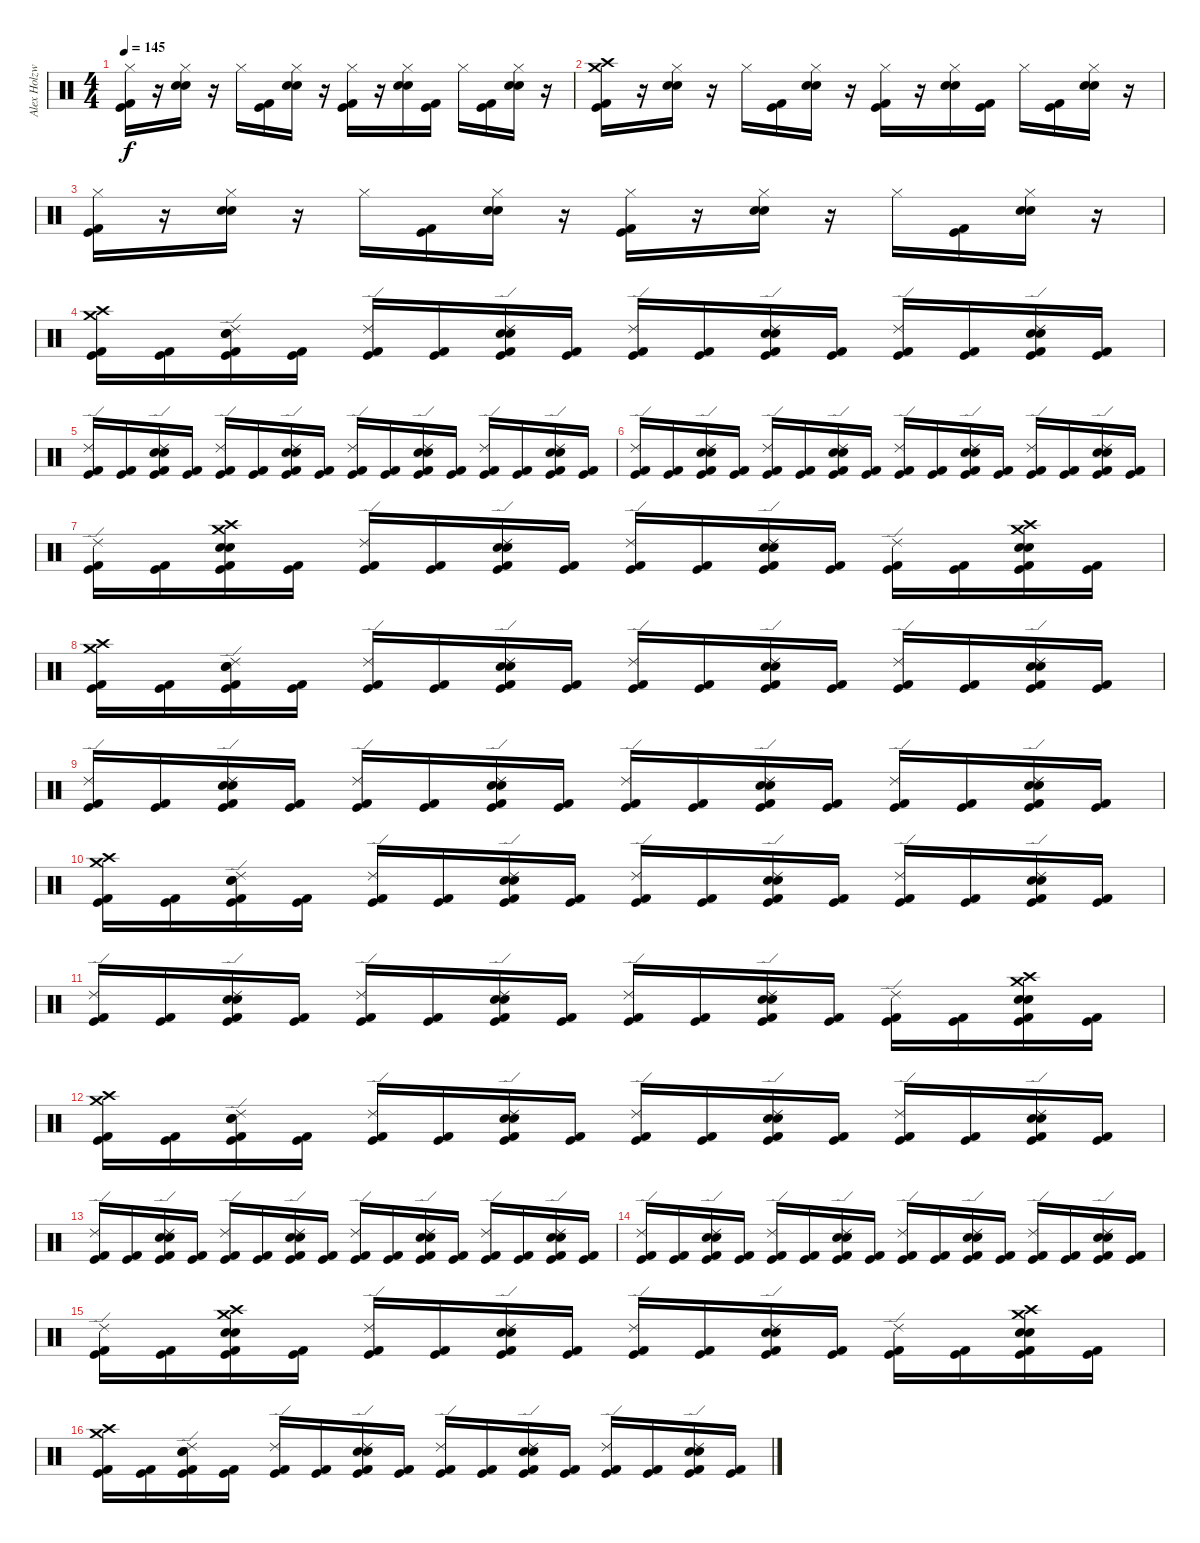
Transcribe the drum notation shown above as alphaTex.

\track ("Alex Holzwarth" "Alex Holzw") {instrument percussion}
\staff {score}
\articulation defaults
\ts (4 4)
\tempo 145
\clef neutral
\ks c
("Hi-Hat (closed)" "Kick (hit) 2" "Kick (hit)").16{dy f} r.16 ("Hi-Hat (closed)" "Electric Snare (hit)" "Snare (hit) 2").16 r.16 "Hi-Hat (closed)".16 ("Kick (hit) 2" "Kick (hit)").16 ("Electric Snare (hit)" "Snare (hit) 2" "Hi-Hat (closed)").16 r.16 ("Hi-Hat (closed)" "Kick (hit) 2" "Kick (hit)").16 r.16 ("Hi-Hat (closed)" "Electric Snare (hit)" "Snare (hit) 2").16 ("Kick (hit) 2" "Kick (hit)").16 "Hi-Hat (closed)".16 ("Kick (hit) 2" "Kick (hit)").16 ("Electric Snare (hit)" "Snare (hit) 2" "Hi-Hat (closed)").16 r.16 |
("Crash high (hit)" "Crash medium (hit)" "Kick (hit) 2" "Kick (hit)").16 r.16 ("Hi-Hat (closed)" "Electric Snare (hit)" "Snare (hit) 2").16 r.16 "Hi-Hat (closed)".16 ("Kick (hit) 2" "Kick (hit)").16 ("Electric Snare (hit)" "Snare (hit) 2" "Hi-Hat (closed)").16 r.16 ("Hi-Hat (closed)" "Kick (hit) 2" "Kick (hit)").16 r.16 ("Hi-Hat (closed)" "Electric Snare (hit)" "Snare (hit) 2").16 ("Kick (hit) 2" "Kick (hit)").16 "Hi-Hat (closed)".16 ("Kick (hit) 2" "Kick (hit)").16 ("Electric Snare (hit)" "Snare (hit) 2" "Hi-Hat (closed)").16 r.16 |
("Hi-Hat (closed)" "Kick (hit) 2" "Kick (hit)").16 r.16 ("Hi-Hat (closed)" "Electric Snare (hit)" "Snare (hit) 2").16 r.16 "Hi-Hat (closed)".16 ("Kick (hit) 2" "Kick (hit)").16 ("Electric Snare (hit)" "Snare (hit) 2" "Hi-Hat (closed)").16 r.16 ("Hi-Hat (closed)" "Kick (hit) 2" "Kick (hit)").16 r.16 ("Hi-Hat (closed)" "Electric Snare (hit)" "Snare (hit) 2").16 r.16 "Hi-Hat (closed)".16 ("Kick (hit) 2" "Kick (hit)").16 ("Electric Snare (hit)" "Snare (hit) 2" "Hi-Hat (closed)").16 r.16 |
("Crash high (hit)" "Crash medium (hit)" "Kick (hit) 2" "Kick (hit)").16 ("Kick (hit) 2" "Kick (hit)").16 ("Ride (edge) 2" "Electric Snare (hit)" "Snare (hit) 2" "Kick (hit) 2" "Kick (hit)").16 ("Kick (hit) 2" "Kick (hit)").16 ("Ride (edge) 2" "Kick (hit) 2" "Kick (hit)").16 ("Kick (hit) 2" "Kick (hit)").16 ("Ride (edge) 2" "Electric Snare (hit)" "Snare (hit) 2" "Kick (hit) 2" "Kick (hit)").16 ("Kick (hit) 2" "Kick (hit)").16 ("Ride (edge) 2" "Kick (hit) 2" "Kick (hit)").16 ("Kick (hit) 2" "Kick (hit)").16 ("Ride (edge) 2" "Snare (hit) 2" "Electric Snare (hit)" "Kick (hit) 2" "Kick (hit)").16 ("Kick (hit) 2" "Kick (hit)").16 ("Ride (edge) 2" "Kick (hit) 2" "Kick (hit)").16 ("Kick (hit) 2" "Kick (hit)").16 ("Ride (edge) 2" "Electric Snare (hit)" "Snare (hit) 2" "Kick (hit) 2" "Kick (hit)").16 ("Kick (hit) 2" "Kick (hit)").16 |
("Ride (edge) 2" "Kick (hit) 2" "Kick (hit)").16 ("Kick (hit) 2" "Kick (hit)").16 ("Ride (edge) 2" "Snare (hit) 2" "Electric Snare (hit)" "Kick (hit) 2" "Kick (hit)").16 ("Kick (hit) 2" "Kick (hit)").16 ("Ride (edge) 2" "Kick (hit) 2" "Kick (hit)").16 ("Kick (hit) 2" "Kick (hit)").16 ("Ride (edge) 2" "Electric Snare (hit)" "Snare (hit) 2" "Kick (hit) 2" "Kick (hit)").16 ("Kick (hit) 2" "Kick (hit)").16 ("Ride (edge) 2" "Kick (hit) 2" "Kick (hit)").16 ("Kick (hit) 2" "Kick (hit)").16 ("Ride (edge) 2" "Snare (hit) 2" "Electric Snare (hit)" "Kick (hit) 2" "Kick (hit)").16 ("Kick (hit) 2" "Kick (hit)").16 ("Ride (edge) 2" "Kick (hit) 2" "Kick (hit)").16 ("Kick (hit) 2" "Kick (hit)").16 ("Ride (edge) 2" "Electric Snare (hit)" "Snare (hit) 2" "Kick (hit) 2" "Kick (hit)").16 ("Kick (hit) 2" "Kick (hit)").16 |
("Ride (edge) 2" "Kick (hit) 2" "Kick (hit)").16 ("Kick (hit) 2" "Kick (hit)").16 ("Ride (edge) 2" "Snare (hit) 2" "Electric Snare (hit)" "Kick (hit) 2" "Kick (hit)").16 ("Kick (hit) 2" "Kick (hit)").16 ("Ride (edge) 2" "Kick (hit) 2" "Kick (hit)").16 ("Kick (hit) 2" "Kick (hit)").16 ("Ride (edge) 2" "Electric Snare (hit)" "Snare (hit) 2" "Kick (hit) 2" "Kick (hit)").16 ("Kick (hit) 2" "Kick (hit)").16 ("Ride (edge) 2" "Kick (hit) 2" "Kick (hit)").16 ("Kick (hit) 2" "Kick (hit)").16 ("Ride (edge) 2" "Snare (hit) 2" "Electric Snare (hit)" "Kick (hit) 2" "Kick (hit)").16 ("Kick (hit) 2" "Kick (hit)").16 ("Ride (edge) 2" "Kick (hit) 2" "Kick (hit)").16 ("Kick (hit) 2" "Kick (hit)").16 ("Ride (edge) 2" "Electric Snare (hit)" "Snare (hit) 2" "Kick (hit) 2" "Kick (hit)").16 ("Kick (hit) 2" "Kick (hit)").16 |
("Ride (edge) 2" "Kick (hit) 2" "Kick (hit)").16 ("Kick (hit) 2" "Kick (hit)").16 ("Crash high (hit)" "Crash medium (hit)" "Snare (hit) 2" "Electric Snare (hit)" "Kick (hit) 2" "Kick (hit)").16 ("Kick (hit) 2" "Kick (hit)").16 ("Ride (edge) 2" "Kick (hit) 2" "Kick (hit)").16 ("Kick (hit) 2" "Kick (hit)").16 ("Ride (edge) 2" "Electric Snare (hit)" "Snare (hit) 2" "Kick (hit) 2" "Kick (hit)").16 ("Kick (hit) 2" "Kick (hit)").16 ("Ride (edge) 2" "Kick (hit) 2" "Kick (hit)").16 ("Kick (hit) 2" "Kick (hit)").16 ("Ride (edge) 2" "Snare (hit) 2" "Electric Snare (hit)" "Kick (hit) 2" "Kick (hit)").16 ("Kick (hit) 2" "Kick (hit)").16 ("Ride (edge) 2" "Kick (hit) 2" "Kick (hit)").16 ("Kick (hit) 2" "Kick (hit)").16 ("Crash high (hit)" "Crash medium (hit)" "Electric Snare (hit)" "Snare (hit) 2" "Kick (hit) 2" "Kick (hit)").16 ("Kick (hit) 2" "Kick (hit)").16 |
("Crash high (hit)" "Crash medium (hit)" "Kick (hit) 2" "Kick (hit)").16 ("Kick (hit) 2" "Kick (hit)").16 ("Ride (edge) 2" "Snare (hit) 2" "Electric Snare (hit)" "Kick (hit) 2" "Kick (hit)").16 ("Kick (hit) 2" "Kick (hit)").16 ("Ride (edge) 2" "Kick (hit) 2" "Kick (hit)").16 ("Kick (hit) 2" "Kick (hit)").16 ("Ride (edge) 2" "Electric Snare (hit)" "Snare (hit) 2" "Kick (hit) 2" "Kick (hit)").16 ("Kick (hit) 2" "Kick (hit)").16 ("Ride (edge) 2" "Kick (hit) 2" "Kick (hit)").16 ("Kick (hit) 2" "Kick (hit)").16 ("Ride (edge) 2" "Snare (hit) 2" "Electric Snare (hit)" "Kick (hit) 2" "Kick (hit)").16 ("Kick (hit) 2" "Kick (hit)").16 ("Ride (edge) 2" "Kick (hit) 2" "Kick (hit)").16 ("Kick (hit) 2" "Kick (hit)").16 ("Ride (edge) 2" "Electric Snare (hit)" "Snare (hit) 2" "Kick (hit) 2" "Kick (hit)").16 ("Kick (hit) 2" "Kick (hit)").16 |
("Ride (edge) 2" "Kick (hit) 2" "Kick (hit)").16 ("Kick (hit) 2" "Kick (hit)").16 ("Ride (edge) 2" "Snare (hit) 2" "Electric Snare (hit)" "Kick (hit) 2" "Kick (hit)").16 ("Kick (hit) 2" "Kick (hit)").16 ("Ride (edge) 2" "Kick (hit) 2" "Kick (hit)").16 ("Kick (hit) 2" "Kick (hit)").16 ("Ride (edge) 2" "Electric Snare (hit)" "Snare (hit) 2" "Kick (hit) 2" "Kick (hit)").16 ("Kick (hit) 2" "Kick (hit)").16 ("Ride (edge) 2" "Kick (hit) 2" "Kick (hit)").16 ("Kick (hit) 2" "Kick (hit)").16 ("Ride (edge) 2" "Snare (hit) 2" "Electric Snare (hit)" "Kick (hit) 2" "Kick (hit)").16 ("Kick (hit) 2" "Kick (hit)").16 ("Ride (edge) 2" "Kick (hit) 2" "Kick (hit)").16 ("Kick (hit) 2" "Kick (hit)").16 ("Ride (edge) 2" "Electric Snare (hit)" "Snare (hit) 2" "Kick (hit) 2" "Kick (hit)").16 ("Kick (hit) 2" "Kick (hit)").16 |
("Crash high (hit)" "Crash medium (hit)" "Kick (hit) 2" "Kick (hit)").16 ("Kick (hit) 2" "Kick (hit)").16 ("Ride (edge) 2" "Snare (hit) 2" "Electric Snare (hit)" "Kick (hit) 2" "Kick (hit)").16 ("Kick (hit) 2" "Kick (hit)").16 ("Ride (edge) 2" "Kick (hit) 2" "Kick (hit)").16 ("Kick (hit) 2" "Kick (hit)").16 ("Ride (edge) 2" "Electric Snare (hit)" "Snare (hit) 2" "Kick (hit) 2" "Kick (hit)").16 ("Kick (hit) 2" "Kick (hit)").16 ("Ride (edge) 2" "Kick (hit) 2" "Kick (hit)").16 ("Kick (hit) 2" "Kick (hit)").16 ("Ride (edge) 2" "Snare (hit) 2" "Electric Snare (hit)" "Kick (hit) 2" "Kick (hit)").16 ("Kick (hit) 2" "Kick (hit)").16 ("Ride (edge) 2" "Kick (hit) 2" "Kick (hit)").16 ("Kick (hit) 2" "Kick (hit)").16 ("Ride (edge) 2" "Electric Snare (hit)" "Snare (hit) 2" "Kick (hit) 2" "Kick (hit)").16 ("Kick (hit) 2" "Kick (hit)").16 |
("Ride (edge) 2" "Kick (hit) 2" "Kick (hit)").16 ("Kick (hit) 2" "Kick (hit)").16 ("Ride (edge) 2" "Snare (hit) 2" "Electric Snare (hit)" "Kick (hit) 2" "Kick (hit)").16 ("Kick (hit) 2" "Kick (hit)").16 ("Ride (edge) 2" "Kick (hit) 2" "Kick (hit)").16 ("Kick (hit) 2" "Kick (hit)").16 ("Ride (edge) 2" "Electric Snare (hit)" "Snare (hit) 2" "Kick (hit) 2" "Kick (hit)").16 ("Kick (hit) 2" "Kick (hit)").16 ("Ride (edge) 2" "Kick (hit) 2" "Kick (hit)").16 ("Kick (hit) 2" "Kick (hit)").16 ("Ride (edge) 2" "Snare (hit) 2" "Electric Snare (hit)" "Kick (hit) 2" "Kick (hit)").16 ("Kick (hit) 2" "Kick (hit)").16 ("Ride (edge) 2" "Kick (hit) 2" "Kick (hit)").16 ("Kick (hit) 2" "Kick (hit)").16 ("Crash high (hit)" "Crash medium (hit)" "Electric Snare (hit)" "Snare (hit) 2" "Kick (hit) 2" "Kick (hit)").16 ("Kick (hit) 2" "Kick (hit)").16 |
("Crash high (hit)" "Crash medium (hit)" "Kick (hit) 2" "Kick (hit)").16 ("Kick (hit) 2" "Kick (hit)").16 ("Ride (edge) 2" "Electric Snare (hit)" "Snare (hit) 2" "Kick (hit) 2" "Kick (hit)").16 ("Kick (hit) 2" "Kick (hit)").16 ("Ride (edge) 2" "Kick (hit) 2" "Kick (hit)").16 ("Kick (hit) 2" "Kick (hit)").16 ("Ride (edge) 2" "Electric Snare (hit)" "Snare (hit) 2" "Kick (hit) 2" "Kick (hit)").16 ("Kick (hit) 2" "Kick (hit)").16 ("Ride (edge) 2" "Kick (hit) 2" "Kick (hit)").16 ("Kick (hit) 2" "Kick (hit)").16 ("Ride (edge) 2" "Snare (hit) 2" "Electric Snare (hit)" "Kick (hit) 2" "Kick (hit)").16 ("Kick (hit) 2" "Kick (hit)").16 ("Ride (edge) 2" "Kick (hit) 2" "Kick (hit)").16 ("Kick (hit) 2" "Kick (hit)").16 ("Ride (edge) 2" "Electric Snare (hit)" "Snare (hit) 2" "Kick (hit) 2" "Kick (hit)").16 ("Kick (hit) 2" "Kick (hit)").16 |
("Ride (edge) 2" "Kick (hit) 2" "Kick (hit)").16 ("Kick (hit) 2" "Kick (hit)").16 ("Ride (edge) 2" "Snare (hit) 2" "Electric Snare (hit)" "Kick (hit) 2" "Kick (hit)").16 ("Kick (hit) 2" "Kick (hit)").16 ("Ride (edge) 2" "Kick (hit) 2" "Kick (hit)").16 ("Kick (hit) 2" "Kick (hit)").16 ("Ride (edge) 2" "Electric Snare (hit)" "Snare (hit) 2" "Kick (hit) 2" "Kick (hit)").16 ("Kick (hit) 2" "Kick (hit)").16 ("Ride (edge) 2" "Kick (hit) 2" "Kick (hit)").16 ("Kick (hit) 2" "Kick (hit)").16 ("Ride (edge) 2" "Snare (hit) 2" "Electric Snare (hit)" "Kick (hit) 2" "Kick (hit)").16 ("Kick (hit) 2" "Kick (hit)").16 ("Ride (edge) 2" "Kick (hit) 2" "Kick (hit)").16 ("Kick (hit) 2" "Kick (hit)").16 ("Ride (edge) 2" "Electric Snare (hit)" "Snare (hit) 2" "Kick (hit) 2" "Kick (hit)").16 ("Kick (hit) 2" "Kick (hit)").16 |
("Ride (edge) 2" "Kick (hit) 2" "Kick (hit)").16 ("Kick (hit) 2" "Kick (hit)").16 ("Ride (edge) 2" "Snare (hit) 2" "Electric Snare (hit)" "Kick (hit) 2" "Kick (hit)").16 ("Kick (hit) 2" "Kick (hit)").16 ("Ride (edge) 2" "Kick (hit) 2" "Kick (hit)").16 ("Kick (hit) 2" "Kick (hit)").16 ("Ride (edge) 2" "Electric Snare (hit)" "Snare (hit) 2" "Kick (hit) 2" "Kick (hit)").16 ("Kick (hit) 2" "Kick (hit)").16 ("Ride (edge) 2" "Kick (hit) 2" "Kick (hit)").16 ("Kick (hit) 2" "Kick (hit)").16 ("Ride (edge) 2" "Snare (hit) 2" "Electric Snare (hit)" "Kick (hit) 2" "Kick (hit)").16 ("Kick (hit) 2" "Kick (hit)").16 ("Ride (edge) 2" "Kick (hit) 2" "Kick (hit)").16 ("Kick (hit) 2" "Kick (hit)").16 ("Ride (edge) 2" "Electric Snare (hit)" "Snare (hit) 2" "Kick (hit) 2" "Kick (hit)").16 ("Kick (hit) 2" "Kick (hit)").16 |
("Ride (edge) 2" "Kick (hit) 2" "Kick (hit)").16 ("Kick (hit) 2" "Kick (hit)").16 ("Crash high (hit)" "Crash medium (hit)" "Snare (hit) 2" "Electric Snare (hit)" "Kick (hit) 2" "Kick (hit)").16 ("Kick (hit) 2" "Kick (hit)").16 ("Ride (edge) 2" "Kick (hit) 2" "Kick (hit)").16 ("Kick (hit) 2" "Kick (hit)").16 ("Ride (edge) 2" "Electric Snare (hit)" "Snare (hit) 2" "Kick (hit) 2" "Kick (hit)").16 ("Kick (hit) 2" "Kick (hit)").16 ("Ride (edge) 2" "Kick (hit) 2" "Kick (hit)").16 ("Kick (hit) 2" "Kick (hit)").16 ("Ride (edge) 2" "Snare (hit) 2" "Electric Snare (hit)" "Kick (hit) 2" "Kick (hit)").16 ("Kick (hit) 2" "Kick (hit)").16 ("Ride (edge) 2" "Kick (hit) 2" "Kick (hit)").16 ("Kick (hit) 2" "Kick (hit)").16 ("Crash high (hit)" "Crash medium (hit)" "Electric Snare (hit)" "Snare (hit) 2" "Kick (hit) 2" "Kick (hit)").16 ("Kick (hit) 2" "Kick (hit)").16 |
("Crash high (hit)" "Crash medium (hit)" "Kick (hit) 2" "Kick (hit)").16 ("Kick (hit) 2" "Kick (hit)").16 ("Ride (edge) 2" "Snare (hit) 2" "Electric Snare (hit)" "Kick (hit) 2" "Kick (hit)").16 ("Kick (hit) 2" "Kick (hit)").16 ("Ride (edge) 2" "Kick (hit) 2" "Kick (hit)").16 ("Kick (hit) 2" "Kick (hit)").16 ("Ride (edge) 2" "Electric Snare (hit)" "Snare (hit) 2" "Kick (hit) 2" "Kick (hit)").16 ("Kick (hit) 2" "Kick (hit)").16 ("Ride (edge) 2" "Kick (hit) 2" "Kick (hit)").16 ("Kick (hit) 2" "Kick (hit)").16 ("Ride (edge) 2" "Snare (hit) 2" "Electric Snare (hit)" "Kick (hit) 2" "Kick (hit)").16 ("Kick (hit) 2" "Kick (hit)").16 ("Ride (edge) 2" "Kick (hit) 2" "Kick (hit)").16 ("Kick (hit) 2" "Kick (hit)").16 ("Ride (edge) 2" "Electric Snare (hit)" "Snare (hit) 2" "Kick (hit) 2" "Kick (hit)").16 ("Kick (hit) 2" "Kick (hit)").16
